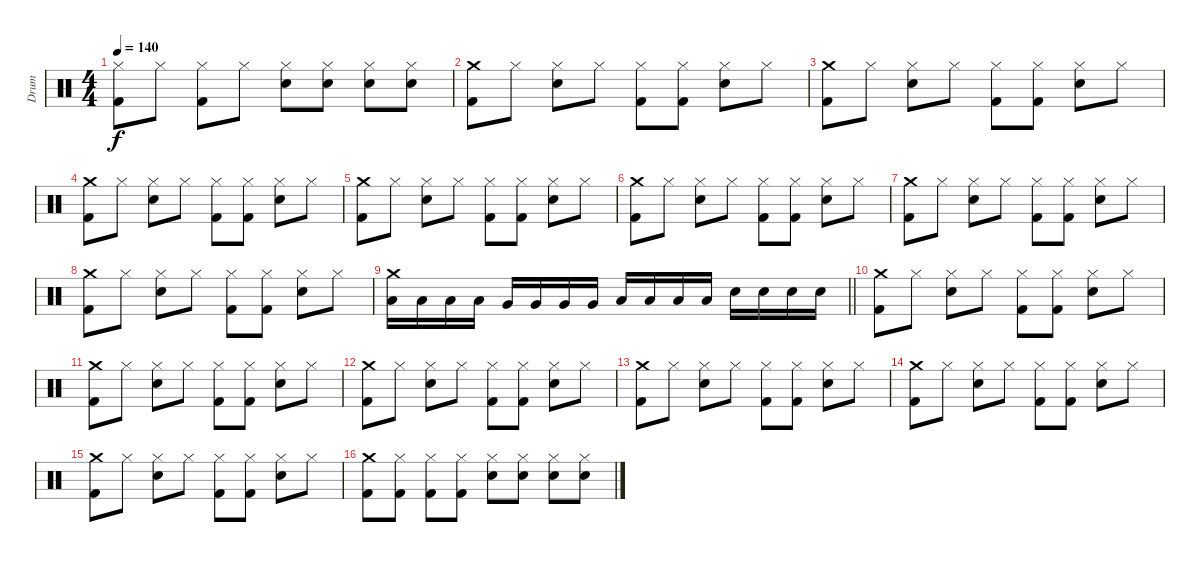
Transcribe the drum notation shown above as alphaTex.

\track ("Drum" "Drum") {instrument percussion}
\staff {score}
\articulation defaults
\ts (4 4)
\tempo 140
\clef neutral
\ks c
("Hi-Hat (closed)" "Kick (hit) 2").8{dy f} "Hi-Hat (closed)".8 ("Hi-Hat (closed)" "Kick (hit) 2").8 "Hi-Hat (closed)".8 ("Hi-Hat (closed)" "Snare (hit) 2").8 ("Hi-Hat (closed)" "Snare (hit) 2").8 ("Hi-Hat (closed)" "Snare (hit) 2").8 ("Hi-Hat (closed)" "Snare (hit) 2").8 |
("Crash medium (hit)" "Kick (hit) 2").8 "Hi-Hat (closed)".8 ("Hi-Hat (closed)" "Electric Snare (hit)").8 "Hi-Hat (closed)".8 ("Hi-Hat (closed)" "Kick (hit) 2").8 ("Hi-Hat (closed)" "Kick (hit) 2").8 ("Hi-Hat (closed)" "Electric Snare (hit)").8 "Hi-Hat (closed)".8 |
("Crash medium (hit)" "Kick (hit) 2").8 "Hi-Hat (closed)".8 ("Hi-Hat (closed)" "Electric Snare (hit)").8 "Hi-Hat (closed)".8 ("Hi-Hat (closed)" "Kick (hit) 2").8 ("Hi-Hat (closed)" "Kick (hit) 2").8 ("Hi-Hat (closed)" "Electric Snare (hit)").8 "Hi-Hat (closed)".8 |
("Crash medium (hit)" "Kick (hit) 2").8 "Hi-Hat (closed)".8 ("Hi-Hat (closed)" "Electric Snare (hit)").8 "Hi-Hat (closed)".8 ("Hi-Hat (closed)" "Kick (hit) 2").8 ("Hi-Hat (closed)" "Kick (hit) 2").8 ("Hi-Hat (closed)" "Electric Snare (hit)").8 "Hi-Hat (closed)".8 |
("Crash medium (hit)" "Kick (hit) 2").8 "Hi-Hat (closed)".8 ("Hi-Hat (closed)" "Electric Snare (hit)").8 "Hi-Hat (closed)".8 ("Hi-Hat (closed)" "Kick (hit) 2").8 ("Hi-Hat (closed)" "Kick (hit) 2").8 ("Hi-Hat (closed)" "Electric Snare (hit)").8 "Hi-Hat (closed)".8 |
("Crash medium (hit)" "Kick (hit) 2").8 "Hi-Hat (closed)".8 ("Hi-Hat (closed)" "Electric Snare (hit)").8 "Hi-Hat (closed)".8 ("Hi-Hat (closed)" "Kick (hit) 2").8 ("Hi-Hat (closed)" "Kick (hit) 2").8 ("Hi-Hat (closed)" "Electric Snare (hit)").8 "Hi-Hat (closed)".8 |
("Crash medium (hit)" "Kick (hit) 2").8 "Hi-Hat (closed)".8 ("Hi-Hat (closed)" "Electric Snare (hit)").8 "Hi-Hat (closed)".8 ("Hi-Hat (closed)" "Kick (hit) 2").8 ("Hi-Hat (closed)" "Kick (hit) 2").8 ("Hi-Hat (closed)" "Electric Snare (hit)").8 "Hi-Hat (closed)".8 |
("Crash medium (hit)" "Kick (hit) 2").8 "Hi-Hat (closed)".8 ("Hi-Hat (closed)" "Electric Snare (hit)").8 "Hi-Hat (closed)".8 ("Hi-Hat (closed)" "Kick (hit) 2").8 ("Hi-Hat (closed)" "Kick (hit) 2").8 ("Hi-Hat (closed)" "Electric Snare (hit)").8 "Hi-Hat (closed)".8 |
\barLineRight lightlight
("Crash medium (hit)" "Low Tom (hit)").16 "Low Tom (hit)".16 "Low Tom (hit)".16 "Low Tom (hit)".16 "Very Low Tom (hit)".16 "Very Low Tom (hit)".16 "Very Low Tom (hit)".16 "Very Low Tom (hit)".16 "Low Tom (hit)".16 "Low Tom (hit)".16 "Low Tom (hit)".16 "Low Tom (hit)".16 "Electric Snare (hit)".16 "Electric Snare (hit)".16 "Electric Snare (hit)".16 "Electric Snare (hit)".16 |
("Crash medium (hit)" "Kick (hit) 2").8 "Hi-Hat (closed)".8 ("Hi-Hat (closed)" "Electric Snare (hit)").8 "Hi-Hat (closed)".8 ("Hi-Hat (closed)" "Kick (hit) 2").8 ("Hi-Hat (closed)" "Kick (hit) 2").8 ("Hi-Hat (closed)" "Electric Snare (hit)").8 "Hi-Hat (closed)".8 |
("Crash medium (hit)" "Kick (hit) 2").8 "Hi-Hat (closed)".8 ("Hi-Hat (closed)" "Electric Snare (hit)").8 "Hi-Hat (closed)".8 ("Hi-Hat (closed)" "Kick (hit) 2").8 ("Hi-Hat (closed)" "Kick (hit) 2").8 ("Hi-Hat (closed)" "Electric Snare (hit)").8 "Hi-Hat (closed)".8 |
("Crash medium (hit)" "Kick (hit) 2").8 "Hi-Hat (closed)".8 ("Hi-Hat (closed)" "Electric Snare (hit)").8 "Hi-Hat (closed)".8 ("Hi-Hat (closed)" "Kick (hit) 2").8 ("Hi-Hat (closed)" "Kick (hit) 2").8 ("Hi-Hat (closed)" "Electric Snare (hit)").8 "Hi-Hat (closed)".8 |
("Crash medium (hit)" "Kick (hit) 2").8 "Hi-Hat (closed)".8 ("Hi-Hat (closed)" "Electric Snare (hit)").8 "Hi-Hat (closed)".8 ("Hi-Hat (closed)" "Kick (hit) 2").8 ("Hi-Hat (closed)" "Kick (hit) 2").8 ("Hi-Hat (closed)" "Electric Snare (hit)").8 "Hi-Hat (closed)".8 |
("Crash medium (hit)" "Kick (hit) 2").8 "Hi-Hat (closed)".8 ("Hi-Hat (closed)" "Electric Snare (hit)").8 "Hi-Hat (closed)".8 ("Hi-Hat (closed)" "Kick (hit) 2").8 ("Hi-Hat (closed)" "Kick (hit) 2").8 ("Hi-Hat (closed)" "Electric Snare (hit)").8 "Hi-Hat (closed)".8 |
("Crash medium (hit)" "Kick (hit) 2").8 "Hi-Hat (closed)".8 ("Hi-Hat (closed)" "Electric Snare (hit)").8 "Hi-Hat (closed)".8 ("Hi-Hat (closed)" "Kick (hit) 2").8 ("Hi-Hat (closed)" "Kick (hit) 2").8 ("Hi-Hat (closed)" "Electric Snare (hit)").8 "Hi-Hat (closed)".8 |
("Crash medium (hit)" "Kick (hit) 2").8 ("Hi-Hat (closed)" "Kick (hit) 2").8 ("Hi-Hat (closed)" "Kick (hit) 2").8 ("Hi-Hat (closed)" "Kick (hit) 2").8 ("Hi-Hat (closed)" "Snare (hit) 2").8 ("Hi-Hat (closed)" "Snare (hit) 2").8 ("Hi-Hat (closed)" "Snare (hit) 2").8 ("Hi-Hat (closed)" "Snare (hit) 2").8
